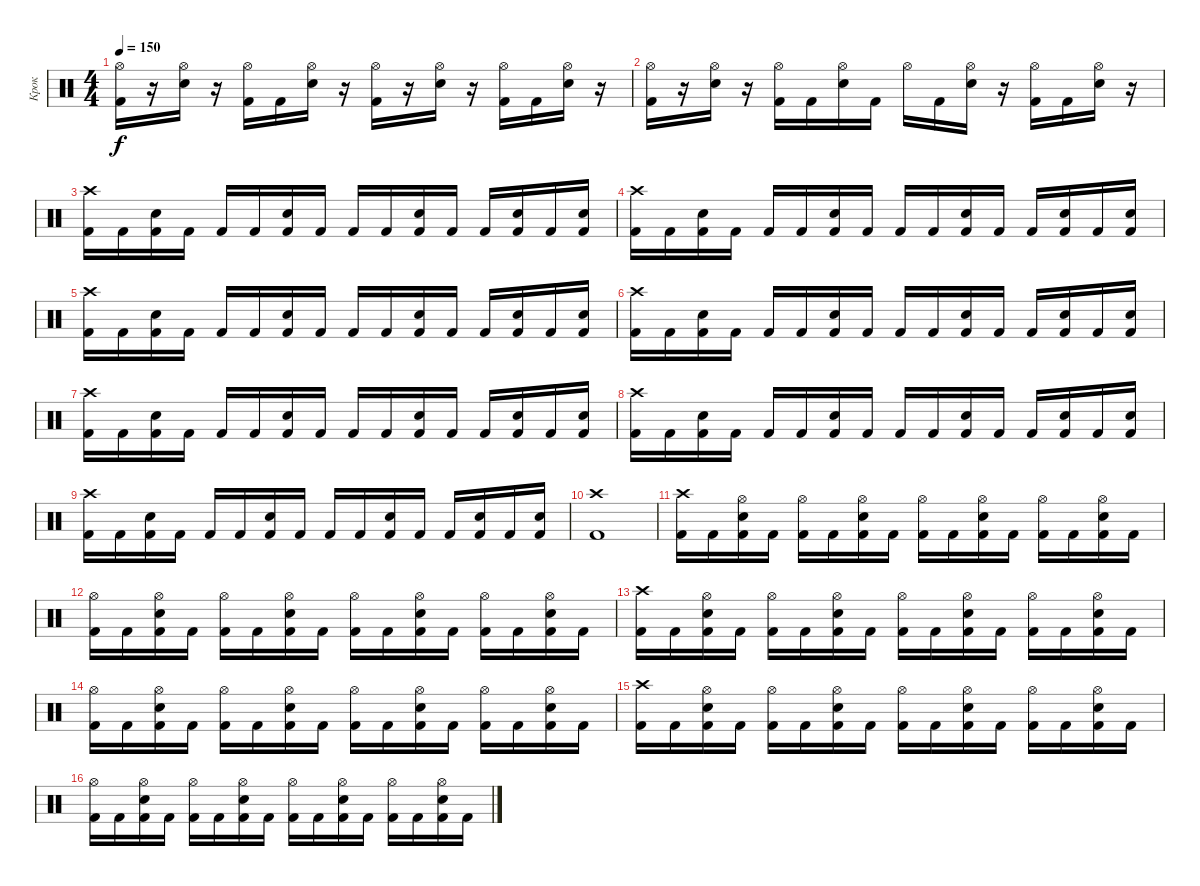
\track ("Крок" "Крок") {instrument percussion}
\staff {score}
\articulation defaults
\ts (4 4)
\tempo 150
\clef neutral
\ks c
("Hi-Hat (open)" "Kick (hit) 2").16{dy f} r.16 ("Hi-Hat (open)" "Electric Snare (hit)").16 r.16 ("Hi-Hat (open)" "Kick (hit) 2").16 "Kick (hit) 2".16 ("Hi-Hat (open)" "Electric Snare (hit)").16 r.16 ("Hi-Hat (open)" "Kick (hit) 2").16 r.16 ("Hi-Hat (open)" "Electric Snare (hit)").16 r.16 ("Hi-Hat (open)" "Kick (hit) 2").16 "Kick (hit) 2".16 ("Hi-Hat (open)" "Electric Snare (hit)").16 r.16 |
("Hi-Hat (open)" "Kick (hit) 2").16 r.16 ("Hi-Hat (open)" "Electric Snare (hit)").16 r.16 ("Hi-Hat (open)" "Kick (hit) 2").16 "Kick (hit) 2".16 ("Hi-Hat (open)" "Electric Snare (hit)").16 "Kick (hit) 2".16 "Hi-Hat (open)".16 "Kick (hit) 2".16 ("Hi-Hat (open)" "Electric Snare (hit)").16 r.16 ("Hi-Hat (open)" "Kick (hit) 2").16 "Kick (hit) 2".16 ("Hi-Hat (open)" "Electric Snare (hit)").16 r.16 |
("Crash high (hit)" "Kick (hit) 2").16 "Kick (hit) 2".16 ("Electric Snare (hit)" "Kick (hit) 2").16 "Kick (hit) 2".16 "Kick (hit) 2".16 "Kick (hit) 2".16 ("Electric Snare (hit)" "Kick (hit) 2").16 "Kick (hit) 2".16 "Kick (hit) 2".16 "Kick (hit) 2".16 ("Electric Snare (hit)" "Kick (hit) 2").16 "Kick (hit) 2".16 "Kick (hit) 2".16 ("Electric Snare (hit)" "Kick (hit) 2").16 "Kick (hit) 2".16 ("Electric Snare (hit)" "Kick (hit) 2").16 |
("Crash high (hit)" "Kick (hit) 2").16 "Kick (hit) 2".16 ("Electric Snare (hit)" "Kick (hit) 2").16 "Kick (hit) 2".16 "Kick (hit) 2".16 "Kick (hit) 2".16 ("Electric Snare (hit)" "Kick (hit) 2").16 "Kick (hit) 2".16 "Kick (hit) 2".16 "Kick (hit) 2".16 ("Electric Snare (hit)" "Kick (hit) 2").16 "Kick (hit) 2".16 "Kick (hit) 2".16 ("Electric Snare (hit)" "Kick (hit) 2").16 "Kick (hit) 2".16 ("Electric Snare (hit)" "Kick (hit) 2").16 |
("Crash high (hit)" "Kick (hit) 2").16 "Kick (hit) 2".16 ("Electric Snare (hit)" "Kick (hit) 2").16 "Kick (hit) 2".16 "Kick (hit) 2".16 "Kick (hit) 2".16 ("Electric Snare (hit)" "Kick (hit) 2").16 "Kick (hit) 2".16 "Kick (hit) 2".16 "Kick (hit) 2".16 ("Electric Snare (hit)" "Kick (hit) 2").16 "Kick (hit) 2".16 "Kick (hit) 2".16 ("Electric Snare (hit)" "Kick (hit) 2").16 "Kick (hit) 2".16 ("Electric Snare (hit)" "Kick (hit) 2").16 |
("Crash high (hit)" "Kick (hit) 2").16 "Kick (hit) 2".16 ("Electric Snare (hit)" "Kick (hit) 2").16 "Kick (hit) 2".16 "Kick (hit) 2".16 "Kick (hit) 2".16 ("Electric Snare (hit)" "Kick (hit) 2").16 "Kick (hit) 2".16 "Kick (hit) 2".16 "Kick (hit) 2".16 ("Electric Snare (hit)" "Kick (hit) 2").16 "Kick (hit) 2".16 "Kick (hit) 2".16 ("Electric Snare (hit)" "Kick (hit) 2").16 "Kick (hit) 2".16 ("Electric Snare (hit)" "Kick (hit) 2").16 |
("Crash high (hit)" "Kick (hit) 2").16 "Kick (hit) 2".16 ("Electric Snare (hit)" "Kick (hit) 2").16 "Kick (hit) 2".16 "Kick (hit) 2".16 "Kick (hit) 2".16 ("Electric Snare (hit)" "Kick (hit) 2").16 "Kick (hit) 2".16 "Kick (hit) 2".16 "Kick (hit) 2".16 ("Electric Snare (hit)" "Kick (hit) 2").16 "Kick (hit) 2".16 "Kick (hit) 2".16 ("Electric Snare (hit)" "Kick (hit) 2").16 "Kick (hit) 2".16 ("Electric Snare (hit)" "Kick (hit) 2").16 |
("Crash high (hit)" "Kick (hit) 2").16 "Kick (hit) 2".16 ("Electric Snare (hit)" "Kick (hit) 2").16 "Kick (hit) 2".16 "Kick (hit) 2".16 "Kick (hit) 2".16 ("Electric Snare (hit)" "Kick (hit) 2").16 "Kick (hit) 2".16 "Kick (hit) 2".16 "Kick (hit) 2".16 ("Electric Snare (hit)" "Kick (hit) 2").16 "Kick (hit) 2".16 "Kick (hit) 2".16 ("Electric Snare (hit)" "Kick (hit) 2").16 "Kick (hit) 2".16 ("Electric Snare (hit)" "Kick (hit) 2").16 |
("Crash high (hit)" "Kick (hit) 2").16 "Kick (hit) 2".16 ("Electric Snare (hit)" "Kick (hit) 2").16 "Kick (hit) 2".16 "Kick (hit) 2".16 "Kick (hit) 2".16 ("Electric Snare (hit)" "Kick (hit) 2").16 "Kick (hit) 2".16 "Kick (hit) 2".16 "Kick (hit) 2".16 ("Electric Snare (hit)" "Kick (hit) 2").16 "Kick (hit) 2".16 "Kick (hit) 2".16 ("Electric Snare (hit)" "Kick (hit) 2").16 "Kick (hit) 2".16 ("Electric Snare (hit)" "Kick (hit) 2").16 |
("Crash high (hit)" "Kick (hit) 2").1 |
("Crash high (hit)" "Kick (hit) 2").16 "Kick (hit) 2".16 ("Hi-Hat (open)" "Electric Snare (hit)" "Kick (hit) 2").16 "Kick (hit) 2".16 ("Hi-Hat (open)" "Kick (hit) 2").16 "Kick (hit) 2".16 ("Hi-Hat (open)" "Electric Snare (hit)" "Kick (hit) 2").16 "Kick (hit) 2".16 ("Hi-Hat (open)" "Kick (hit) 2").16 "Kick (hit) 2".16 ("Hi-Hat (open)" "Electric Snare (hit)" "Kick (hit) 2").16 "Kick (hit) 2".16 ("Hi-Hat (open)" "Kick (hit) 2").16 "Kick (hit) 2".16 ("Hi-Hat (open)" "Electric Snare (hit)" "Kick (hit) 2").16 "Kick (hit) 2".16 |
("Hi-Hat (open)" "Kick (hit) 2").16 "Kick (hit) 2".16 ("Hi-Hat (open)" "Electric Snare (hit)" "Kick (hit) 2").16 "Kick (hit) 2".16 ("Hi-Hat (open)" "Kick (hit) 2").16 "Kick (hit) 2".16 ("Hi-Hat (open)" "Electric Snare (hit)" "Kick (hit) 2").16 "Kick (hit) 2".16 ("Hi-Hat (open)" "Kick (hit) 2").16 "Kick (hit) 2".16 ("Hi-Hat (open)" "Electric Snare (hit)" "Kick (hit) 2").16 "Kick (hit) 2".16 ("Hi-Hat (open)" "Kick (hit) 2").16 "Kick (hit) 2".16 ("Hi-Hat (open)" "Electric Snare (hit)" "Kick (hit) 2").16 "Kick (hit) 2".16 |
("Crash high (hit)" "Kick (hit) 2").16 "Kick (hit) 2".16 ("Hi-Hat (open)" "Electric Snare (hit)" "Kick (hit) 2").16 "Kick (hit) 2".16 ("Hi-Hat (open)" "Kick (hit) 2").16 "Kick (hit) 2".16 ("Hi-Hat (open)" "Electric Snare (hit)" "Kick (hit) 2").16 "Kick (hit) 2".16 ("Hi-Hat (open)" "Kick (hit) 2").16 "Kick (hit) 2".16 ("Hi-Hat (open)" "Electric Snare (hit)" "Kick (hit) 2").16 "Kick (hit) 2".16 ("Hi-Hat (open)" "Kick (hit) 2").16 "Kick (hit) 2".16 ("Hi-Hat (open)" "Electric Snare (hit)" "Kick (hit) 2").16 "Kick (hit) 2".16 |
("Hi-Hat (open)" "Kick (hit) 2").16 "Kick (hit) 2".16 ("Hi-Hat (open)" "Electric Snare (hit)" "Kick (hit) 2").16 "Kick (hit) 2".16 ("Hi-Hat (open)" "Kick (hit) 2").16 "Kick (hit) 2".16 ("Hi-Hat (open)" "Electric Snare (hit)" "Kick (hit) 2").16 "Kick (hit) 2".16 ("Hi-Hat (open)" "Kick (hit) 2").16 "Kick (hit) 2".16 ("Hi-Hat (open)" "Electric Snare (hit)" "Kick (hit) 2").16 "Kick (hit) 2".16 ("Hi-Hat (open)" "Kick (hit) 2").16 "Kick (hit) 2".16 ("Hi-Hat (open)" "Electric Snare (hit)" "Kick (hit) 2").16 "Kick (hit) 2".16 |
("Crash high (hit)" "Kick (hit) 2").16 "Kick (hit) 2".16 ("Hi-Hat (open)" "Electric Snare (hit)" "Kick (hit) 2").16 "Kick (hit) 2".16 ("Hi-Hat (open)" "Kick (hit) 2").16 "Kick (hit) 2".16 ("Hi-Hat (open)" "Electric Snare (hit)" "Kick (hit) 2").16 "Kick (hit) 2".16 ("Hi-Hat (open)" "Kick (hit) 2").16 "Kick (hit) 2".16 ("Hi-Hat (open)" "Electric Snare (hit)" "Kick (hit) 2").16 "Kick (hit) 2".16 ("Hi-Hat (open)" "Kick (hit) 2").16 "Kick (hit) 2".16 ("Hi-Hat (open)" "Electric Snare (hit)" "Kick (hit) 2").16 "Kick (hit) 2".16 |
("Hi-Hat (open)" "Kick (hit) 2").16 "Kick (hit) 2".16 ("Hi-Hat (open)" "Electric Snare (hit)" "Kick (hit) 2").16 "Kick (hit) 2".16 ("Hi-Hat (open)" "Kick (hit) 2").16 "Kick (hit) 2".16 ("Hi-Hat (open)" "Electric Snare (hit)" "Kick (hit) 2").16 "Kick (hit) 2".16 ("Hi-Hat (open)" "Kick (hit) 2").16 "Kick (hit) 2".16 ("Hi-Hat (open)" "Electric Snare (hit)" "Kick (hit) 2").16 "Kick (hit) 2".16 ("Hi-Hat (open)" "Kick (hit) 2").16 "Kick (hit) 2".16 ("Hi-Hat (open)" "Electric Snare (hit)" "Kick (hit) 2").16 "Kick (hit) 2".16
